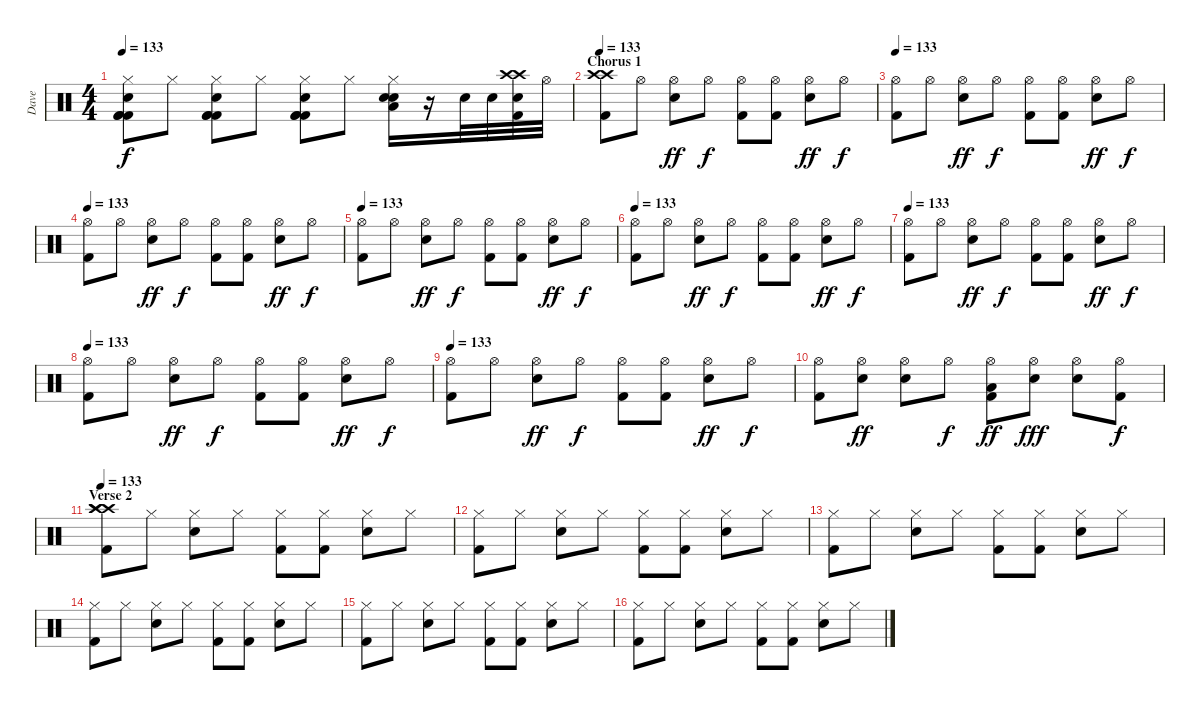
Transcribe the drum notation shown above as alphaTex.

\track ("Dave" "Dave") {instrument percussion}
\staff {score}
\articulation defaults
\ts (4 4)
\tempo 133
\clef neutral
\ks c
("Hi-Hat (closed)" "Snare (hit) 2" "Kick (hit) 2" "Kick (hit) 2" "Kick (hit) 2").8{dy f} "Hi-Hat (closed)".8 ("Hi-Hat (closed)" "Snare (hit) 2" "Kick (hit) 2" "Kick (hit) 2" "Kick (hit) 2").8 "Hi-Hat (closed)".8 ("Hi-Hat (closed)" "Snare (hit) 2" "Kick (hit) 2" "Kick (hit) 2" "Kick (hit) 2").8 "Hi-Hat (closed)".8 ("Hi-Hat (closed)" "Snare (hit) 2" "Low Tom (hit)" "Snare (hit) 2").16 r.16 "Snare (hit) 2".32 "Snare (hit) 2".32 ("Snare (hit) 2" "Crash high (hit)" "Crash high (hit)" "Kick (hit) 2").32 "Hi-Hat (open)".32 |
\section ("" "Chorus 1")
\tempo 133
("Crash high (hit)" "Crash high (hit)" "Kick (hit) 2").8 "Hi-Hat (open)".8 ("Hi-Hat (open)" "Snare (hit) 2").8{dy ff} "Hi-Hat (open)".8{dy f} ("Hi-Hat (open)" "Kick (hit) 2").8 ("Hi-Hat (open)" "Kick (hit) 2").8 ("Hi-Hat (open)" "Snare (hit) 2").8{dy ff} "Hi-Hat (open)".8{dy f} |
\tempo 133
("Hi-Hat (open)" "Kick (hit) 2").8 "Hi-Hat (open)".8 ("Hi-Hat (open)" "Snare (hit) 2").8{dy ff} "Hi-Hat (open)".8{dy f} ("Hi-Hat (open)" "Kick (hit) 2").8 ("Hi-Hat (open)" "Kick (hit) 2").8 ("Hi-Hat (open)" "Snare (hit) 2").8{dy ff} "Hi-Hat (open)".8{dy f} |
\tempo 133
("Hi-Hat (open)" "Kick (hit) 2").8 "Hi-Hat (open)".8 ("Hi-Hat (open)" "Snare (hit) 2").8{dy ff} "Hi-Hat (open)".8{dy f} ("Hi-Hat (open)" "Kick (hit) 2").8 ("Hi-Hat (open)" "Kick (hit) 2").8 ("Hi-Hat (open)" "Snare (hit) 2").8{dy ff} "Hi-Hat (open)".8{dy f} |
\tempo 133
("Hi-Hat (open)" "Kick (hit) 2").8 "Hi-Hat (open)".8 ("Hi-Hat (open)" "Snare (hit) 2").8{dy ff} "Hi-Hat (open)".8{dy f} ("Hi-Hat (open)" "Kick (hit) 2").8 ("Hi-Hat (open)" "Kick (hit) 2").8 ("Hi-Hat (open)" "Snare (hit) 2").8{dy ff} "Hi-Hat (open)".8{dy f} |
\tempo 133
("Hi-Hat (open)" "Kick (hit) 2").8 "Hi-Hat (open)".8 ("Hi-Hat (open)" "Snare (hit) 2").8{dy ff} "Hi-Hat (open)".8{dy f} ("Hi-Hat (open)" "Kick (hit) 2").8 ("Hi-Hat (open)" "Kick (hit) 2").8 ("Hi-Hat (open)" "Snare (hit) 2").8{dy ff} "Hi-Hat (open)".8{dy f} |
\tempo 133
("Hi-Hat (open)" "Kick (hit) 2").8 "Hi-Hat (open)".8 ("Hi-Hat (open)" "Snare (hit) 2").8{dy ff} "Hi-Hat (open)".8{dy f} ("Hi-Hat (open)" "Kick (hit) 2").8 ("Hi-Hat (open)" "Kick (hit) 2").8 ("Hi-Hat (open)" "Snare (hit) 2").8{dy ff} "Hi-Hat (open)".8{dy f} |
\tempo 133
("Hi-Hat (open)" "Kick (hit) 2").8 "Hi-Hat (open)".8 ("Hi-Hat (open)" "Snare (hit) 2").8{dy ff} "Hi-Hat (open)".8{dy f} ("Hi-Hat (open)" "Kick (hit) 2").8 ("Hi-Hat (open)" "Kick (hit) 2").8 ("Hi-Hat (open)" "Snare (hit) 2").8{dy ff} "Hi-Hat (open)".8{dy f} |
\tempo 133
("Hi-Hat (open)" "Kick (hit) 2").8 "Hi-Hat (open)".8 ("Hi-Hat (open)" "Snare (hit) 2").8{dy ff} "Hi-Hat (open)".8{dy f} ("Hi-Hat (open)" "Kick (hit) 2").8 ("Hi-Hat (open)" "Kick (hit) 2").8 ("Hi-Hat (open)" "Snare (hit) 2").8{dy ff} "Hi-Hat (open)".8{dy f} |
("Hi-Hat (open)" "Kick (hit) 2").8 ("Hi-Hat (open)" "Snare (hit) 2").8{dy ff} ("Hi-Hat (open)" "Snare (hit) 2").8 "Hi-Hat (open)".8{dy f} ("Hi-Hat (open)" "Low Tom (hit)" "Kick (hit) 2").8{dy ff} ("Hi-Hat (open)" "Snare (hit) 2").8{dy fff} ("Hi-Hat (open)" "Snare (hit) 2").8 ("Hi-Hat (open)" "Kick (hit) 2").8{dy f} |
\section ("" "Verse 2")
\tempo 133
("Crash high (hit)" "Crash high (hit)" "Crash high (hit)" "Kick (hit) 2").8 "Hi-Hat (closed)".8 ("Hi-Hat (closed)" "Snare (hit) 2").8 "Hi-Hat (closed)".8 ("Hi-Hat (closed)" "Kick (hit) 2").8 ("Hi-Hat (closed)" "Kick (hit) 2").8 ("Hi-Hat (closed)" "Snare (hit) 2").8 "Hi-Hat (closed)".8 |
("Hi-Hat (closed)" "Kick (hit) 2").8 "Hi-Hat (closed)".8 ("Hi-Hat (closed)" "Snare (hit) 2").8 "Hi-Hat (closed)".8 ("Hi-Hat (closed)" "Kick (hit) 2").8 ("Hi-Hat (closed)" "Kick (hit) 2").8 ("Hi-Hat (closed)" "Snare (hit) 2").8 "Hi-Hat (closed)".8 |
("Hi-Hat (closed)" "Kick (hit) 2").8 "Hi-Hat (closed)".8 ("Hi-Hat (closed)" "Snare (hit) 2").8 "Hi-Hat (closed)".8 ("Hi-Hat (closed)" "Kick (hit) 2").8 ("Hi-Hat (closed)" "Kick (hit) 2").8 ("Hi-Hat (closed)" "Snare (hit) 2").8 "Hi-Hat (closed)".8 |
("Hi-Hat (closed)" "Kick (hit) 2").8 "Hi-Hat (closed)".8 ("Hi-Hat (closed)" "Snare (hit) 2").8 "Hi-Hat (closed)".8 ("Hi-Hat (closed)" "Kick (hit) 2").8 ("Hi-Hat (closed)" "Kick (hit) 2").8 ("Hi-Hat (closed)" "Snare (hit) 2").8 "Hi-Hat (closed)".8 |
("Hi-Hat (closed)" "Kick (hit) 2").8 "Hi-Hat (closed)".8 ("Hi-Hat (closed)" "Snare (hit) 2").8 "Hi-Hat (closed)".8 ("Hi-Hat (closed)" "Kick (hit) 2").8 ("Hi-Hat (closed)" "Kick (hit) 2").8 ("Hi-Hat (closed)" "Snare (hit) 2").8 "Hi-Hat (closed)".8 |
("Hi-Hat (closed)" "Kick (hit) 2").8 "Hi-Hat (closed)".8 ("Hi-Hat (closed)" "Snare (hit) 2").8 "Hi-Hat (closed)".8 ("Hi-Hat (closed)" "Kick (hit) 2").8 ("Hi-Hat (closed)" "Kick (hit) 2").8 ("Hi-Hat (closed)" "Snare (hit) 2").8 "Hi-Hat (closed)".8
